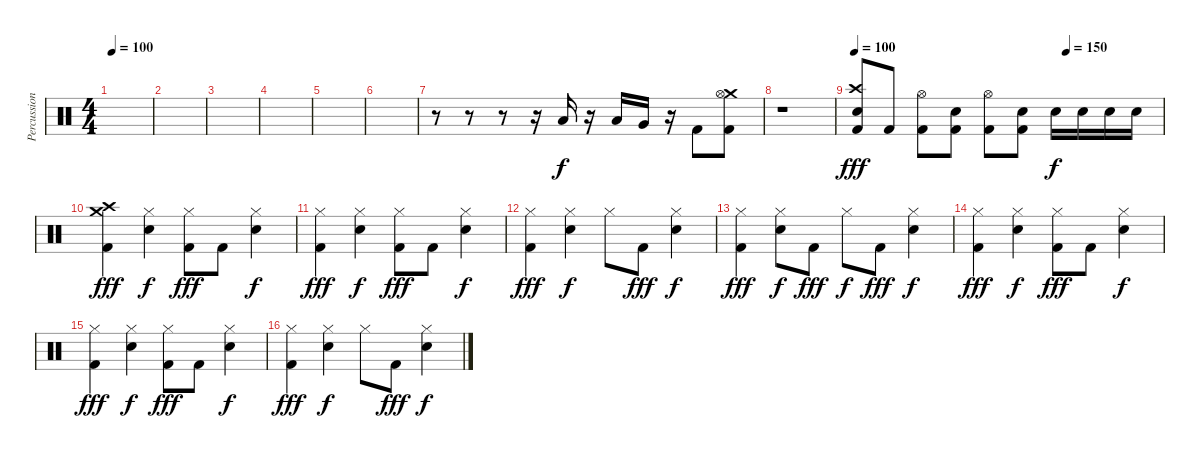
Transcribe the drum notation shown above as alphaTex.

\track ("Percussion" "Percussion") {instrument percussion}
\staff {score}
\articulation defaults
\ts (4 4)
\tempo 100
\clef neutral
\ks c
|
|
|
|
|
|
r.8 r.8 r.8 r.16 "Low Tom (hit)".16 r.16 "Low Tom (hit)".16 "Very Low Tom (hit)".16 r.16 "Kick (hit) 2".8 ("Crash medium (hit)" "Hi-Hat (open)" "Kick (hit) 2").8 |
r.1 |
\tempo 100
\tempo (150 0.6875)
("Crash high (hit)" "Electric Snare (hit)" "Kick (hit) 2").8{dy fff} "Kick (hit) 2".8 ("Hi-Hat (open)" "Kick (hit) 2").8 ("Electric Snare (hit)" "Kick (hit) 2").8 ("Hi-Hat (open)" "Kick (hit) 2").8 ("Electric Snare (hit)" "Kick (hit) 2").8 "Electric Snare (hit)".16{dy f} "Electric Snare (hit)".16 "Electric Snare (hit)".16 "Electric Snare (hit)".16 |
("Crash medium (hit)" "Crash high (hit)" "Kick (hit) 2").4{dy fff} ("Hi-Hat (closed)" "Electric Snare (hit)").4{dy f} ("Hi-Hat (closed)" "Kick (hit) 2").8{dy fff} "Kick (hit) 2".8 ("Hi-Hat (closed)" "Electric Snare (hit)").4{dy f} |
("Hi-Hat (closed)" "Kick (hit) 2").4{dy fff} ("Hi-Hat (closed)" "Electric Snare (hit)").4{dy f} ("Hi-Hat (closed)" "Kick (hit) 2").8{dy fff} "Kick (hit) 2".8 ("Hi-Hat (closed)" "Electric Snare (hit)").4{dy f} |
("Hi-Hat (closed)" "Kick (hit) 2").4{dy fff} ("Hi-Hat (closed)" "Electric Snare (hit)").4{dy f} "Hi-Hat (closed)".8 "Kick (hit) 2".8{dy fff} ("Hi-Hat (closed)" "Electric Snare (hit)").4{dy f} |
("Hi-Hat (closed)" "Kick (hit) 2").4{dy fff} ("Hi-Hat (closed)" "Electric Snare (hit)").8{dy f} "Kick (hit) 2".8{dy fff} "Hi-Hat (closed)".8{dy f} "Kick (hit) 2".8{dy fff} ("Hi-Hat (closed)" "Electric Snare (hit)").4{dy f} |
("Hi-Hat (closed)" "Kick (hit) 2").4{dy fff} ("Hi-Hat (closed)" "Electric Snare (hit)").4{dy f} ("Hi-Hat (closed)" "Kick (hit) 2").8{dy fff} "Kick (hit) 2".8 ("Hi-Hat (closed)" "Electric Snare (hit)").4{dy f} |
("Hi-Hat (closed)" "Kick (hit) 2").4{dy fff} ("Hi-Hat (closed)" "Electric Snare (hit)").4{dy f} ("Hi-Hat (closed)" "Kick (hit) 2").8{dy fff} "Kick (hit) 2".8 ("Hi-Hat (closed)" "Electric Snare (hit)").4{dy f} |
("Hi-Hat (closed)" "Kick (hit) 2").4{dy fff} ("Hi-Hat (closed)" "Electric Snare (hit)").4{dy f} "Hi-Hat (closed)".8 "Kick (hit) 2".8{dy fff} ("Hi-Hat (closed)" "Electric Snare (hit)").4{dy f}
